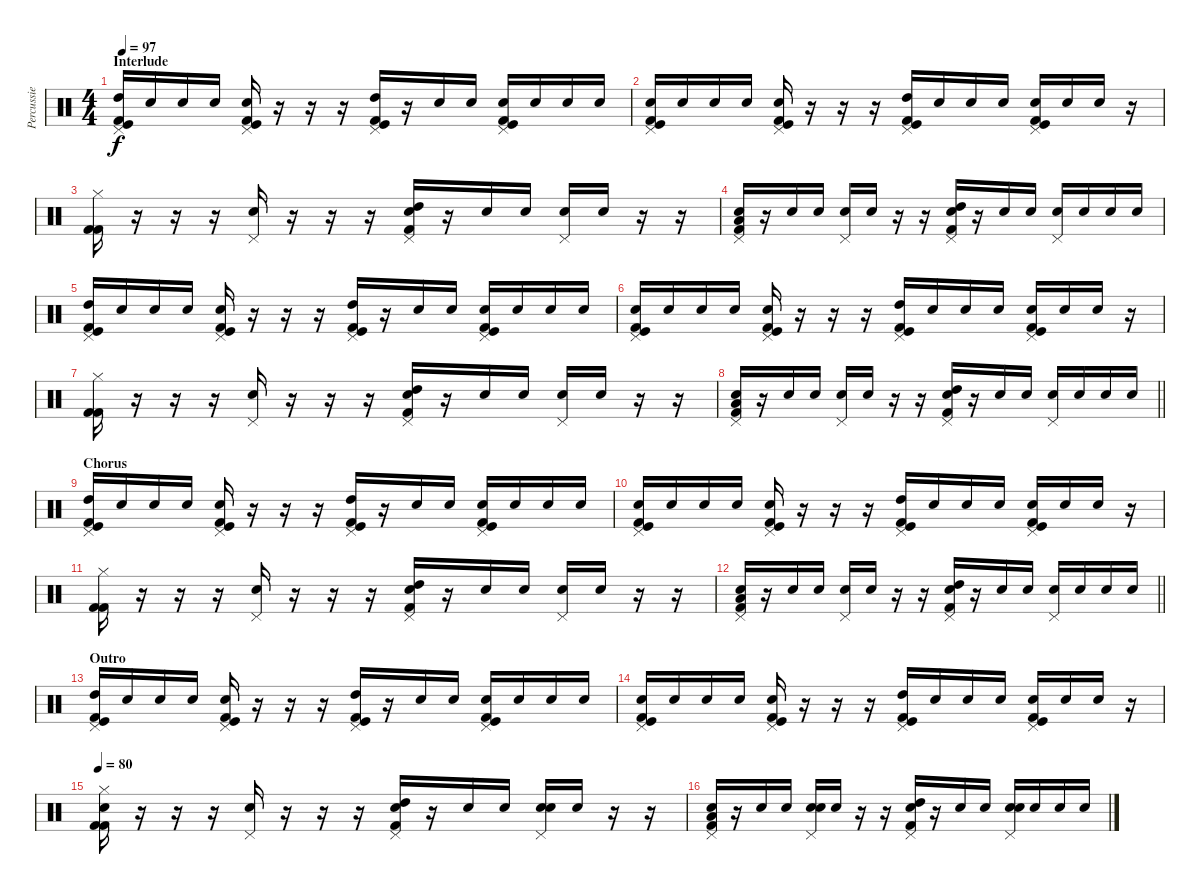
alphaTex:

\track ("Percussie" "Percussie") {instrument percussion}
\staff {score}
\articulation defaults
\ts (4 4)
\section ("" "Interlude")
\tempo 97
\clef neutral
\ks c
("Pedal Hi-Hat (hit)" "High Tom (hit)" "Kick (hit)" "Kick (hit) 2").16{dy f} "Hand Clap (hit)".16 "Hand Clap (hit)".16 "Hand Clap (hit)".16 ("Pedal Hi-Hat (hit)" "Electric Snare (hit)" "Kick (hit)" "Kick (hit) 2").16 r.16 r.16 r.16 ("Pedal Hi-Hat (hit)" "High Tom (hit)" "Kick (hit)" "Kick (hit) 2").16 r.16 "Hand Clap (hit)".16 "Hand Clap (hit)".16 ("Pedal Hi-Hat (hit)" "Electric Snare (hit)" "Kick (hit)" "Kick (hit) 2").16 "Hand Clap (hit)".16 "Hand Clap (hit)".16 "Hand Clap (hit)".16 |
("Pedal Hi-Hat (hit)" "Electric Snare (hit)" "Kick (hit)" "Kick (hit) 2").16 "Hand Clap (hit)".16 "Hand Clap (hit)".16 "Hand Clap (hit)".16 ("Pedal Hi-Hat (hit)" "Electric Snare (hit)" "Kick (hit)" "Kick (hit) 2").16 r.16 r.16 r.16 ("Pedal Hi-Hat (hit)" "High Tom (hit)" "Kick (hit)" "Kick (hit) 2").16 "Hand Clap (hit)".16 "Hand Clap (hit)".16 "Hand Clap (hit)".16 ("Pedal Hi-Hat (hit)" "Electric Snare (hit)" "Kick (hit)" "Kick (hit) 2").16 "Hand Clap (hit)".16 "Electric Snare (hit)".16 r.16 |
("Hi-Hat (closed)" "Kick (hit) 2" "Kick (hit) 2").16 r.16 r.16 r.16 ("Pedal Hi-Hat (hit)" "Hand Clap (hit)").16 r.16 r.16 r.16 ("Pedal Hi-Hat (hit)" "Electric Snare (hit)" "High Tom (hit)" "Kick (hit) 2").16 r.16 "Hand Clap (hit)".16 "Hand Clap (hit)".16 ("Pedal Hi-Hat (hit)" "Hand Clap (hit)").16 "Hand Clap (hit)".16 r.16 r.16 |
("Pedal Hi-Hat (hit)" "Electric Snare (hit)" "Low Tom (hit)" "Kick (hit) 2").16 r.16 "Hand Clap (hit)".16 "Hand Clap (hit)".16 ("Pedal Hi-Hat (hit)" "Hand Clap (hit)").16 "Hand Clap (hit)".16 r.16 r.16 ("Pedal Hi-Hat (hit)" "Electric Snare (hit)" "High Tom (hit)" "Kick (hit) 2").16 r.16 "Hand Clap (hit)".16 "Hand Clap (hit)".16 ("Pedal Hi-Hat (hit)" "Hand Clap (hit)").16 "Hand Clap (hit)".16 "Hand Clap (hit)".16 "Hand Clap (hit)".16 |
("Pedal Hi-Hat (hit)" "High Tom (hit)" "Kick (hit)" "Kick (hit) 2").16 "Hand Clap (hit)".16 "Hand Clap (hit)".16 "Hand Clap (hit)".16 ("Pedal Hi-Hat (hit)" "Electric Snare (hit)" "Kick (hit)" "Kick (hit) 2").16 r.16 r.16 r.16 ("Pedal Hi-Hat (hit)" "High Tom (hit)" "Kick (hit)" "Kick (hit) 2").16 r.16 "Hand Clap (hit)".16 "Hand Clap (hit)".16 ("Pedal Hi-Hat (hit)" "Electric Snare (hit)" "Kick (hit)" "Kick (hit) 2").16 "Hand Clap (hit)".16 "Hand Clap (hit)".16 "Hand Clap (hit)".16 |
("Pedal Hi-Hat (hit)" "Electric Snare (hit)" "Kick (hit)" "Kick (hit) 2").16 "Hand Clap (hit)".16 "Hand Clap (hit)".16 "Hand Clap (hit)".16 ("Pedal Hi-Hat (hit)" "Electric Snare (hit)" "Kick (hit)" "Kick (hit) 2").16 r.16 r.16 r.16 ("Pedal Hi-Hat (hit)" "High Tom (hit)" "Kick (hit)" "Kick (hit) 2").16 "Hand Clap (hit)".16 "Hand Clap (hit)".16 "Hand Clap (hit)".16 ("Pedal Hi-Hat (hit)" "Electric Snare (hit)" "Kick (hit)" "Kick (hit) 2").16 "Hand Clap (hit)".16 "Electric Snare (hit)".16 r.16 |
("Hi-Hat (closed)" "Kick (hit) 2" "Kick (hit) 2").16 r.16 r.16 r.16 ("Pedal Hi-Hat (hit)" "Hand Clap (hit)").16 r.16 r.16 r.16 ("Pedal Hi-Hat (hit)" "Electric Snare (hit)" "High Tom (hit)" "Kick (hit) 2").16 r.16 "Hand Clap (hit)".16 "Hand Clap (hit)".16 ("Pedal Hi-Hat (hit)" "Hand Clap (hit)").16 "Hand Clap (hit)".16 r.16 r.16 |
\barLineRight lightlight
("Pedal Hi-Hat (hit)" "Electric Snare (hit)" "Low Tom (hit)" "Kick (hit) 2").16 r.16 "Hand Clap (hit)".16 "Hand Clap (hit)".16 ("Pedal Hi-Hat (hit)" "Hand Clap (hit)").16 "Hand Clap (hit)".16 r.16 r.16 ("Pedal Hi-Hat (hit)" "Electric Snare (hit)" "High Tom (hit)" "Kick (hit) 2").16 r.16 "Hand Clap (hit)".16 "Hand Clap (hit)".16 ("Pedal Hi-Hat (hit)" "Hand Clap (hit)").16 "Hand Clap (hit)".16 "Hand Clap (hit)".16 "Hand Clap (hit)".16 |
\section ("" "Chorus")
("Pedal Hi-Hat (hit)" "High Tom (hit)" "Kick (hit)" "Kick (hit) 2").16 "Hand Clap (hit)".16 "Hand Clap (hit)".16 "Hand Clap (hit)".16 ("Pedal Hi-Hat (hit)" "Electric Snare (hit)" "Kick (hit)" "Kick (hit) 2").16 r.16 r.16 r.16 ("Pedal Hi-Hat (hit)" "High Tom (hit)" "Kick (hit)" "Kick (hit) 2").16 r.16 "Hand Clap (hit)".16 "Hand Clap (hit)".16 ("Pedal Hi-Hat (hit)" "Electric Snare (hit)" "Kick (hit)" "Kick (hit) 2").16 "Hand Clap (hit)".16 "Hand Clap (hit)".16 "Hand Clap (hit)".16 |
("Pedal Hi-Hat (hit)" "Electric Snare (hit)" "Kick (hit)" "Kick (hit) 2").16 "Hand Clap (hit)".16 "Hand Clap (hit)".16 "Hand Clap (hit)".16 ("Pedal Hi-Hat (hit)" "Electric Snare (hit)" "Kick (hit)" "Kick (hit) 2").16 r.16 r.16 r.16 ("Pedal Hi-Hat (hit)" "High Tom (hit)" "Kick (hit)" "Kick (hit) 2").16 "Hand Clap (hit)".16 "Hand Clap (hit)".16 "Hand Clap (hit)".16 ("Pedal Hi-Hat (hit)" "Electric Snare (hit)" "Kick (hit)" "Kick (hit) 2").16 "Hand Clap (hit)".16 "Electric Snare (hit)".16 r.16 |
("Hi-Hat (closed)" "Kick (hit) 2" "Kick (hit) 2").16 r.16 r.16 r.16 ("Pedal Hi-Hat (hit)" "Hand Clap (hit)").16 r.16 r.16 r.16 ("Pedal Hi-Hat (hit)" "Electric Snare (hit)" "High Tom (hit)" "Kick (hit) 2").16 r.16 "Hand Clap (hit)".16 "Hand Clap (hit)".16 ("Pedal Hi-Hat (hit)" "Hand Clap (hit)").16 "Hand Clap (hit)".16 r.16 r.16 |
\barLineRight lightlight
("Pedal Hi-Hat (hit)" "Electric Snare (hit)" "Low Tom (hit)" "Kick (hit) 2").16 r.16 "Hand Clap (hit)".16 "Hand Clap (hit)".16 ("Pedal Hi-Hat (hit)" "Hand Clap (hit)").16 "Hand Clap (hit)".16 r.16 r.16 ("Pedal Hi-Hat (hit)" "Electric Snare (hit)" "High Tom (hit)" "Kick (hit) 2").16 r.16 "Hand Clap (hit)".16 "Hand Clap (hit)".16 ("Pedal Hi-Hat (hit)" "Hand Clap (hit)").16 "Hand Clap (hit)".16 "Hand Clap (hit)".16 "Hand Clap (hit)".16 |
\section ("" "Outro")
("Pedal Hi-Hat (hit)" "High Tom (hit)" "Kick (hit)" "Kick (hit) 2").16 "Hand Clap (hit)".16 "Hand Clap (hit)".16 "Hand Clap (hit)".16 ("Pedal Hi-Hat (hit)" "Electric Snare (hit)" "Kick (hit)" "Kick (hit) 2").16 r.16 r.16 r.16 ("Pedal Hi-Hat (hit)" "High Tom (hit)" "Kick (hit)" "Kick (hit) 2").16 r.16 "Hand Clap (hit)".16 "Hand Clap (hit)".16 ("Pedal Hi-Hat (hit)" "Electric Snare (hit)" "Kick (hit)" "Kick (hit) 2").16 "Hand Clap (hit)".16 "Hand Clap (hit)".16 "Hand Clap (hit)".16 |
("Pedal Hi-Hat (hit)" "Electric Snare (hit)" "Kick (hit)" "Kick (hit) 2").16 "Hand Clap (hit)".16 "Hand Clap (hit)".16 "Hand Clap (hit)".16 ("Pedal Hi-Hat (hit)" "Electric Snare (hit)" "Kick (hit)" "Kick (hit) 2").16 r.16 r.16 r.16 ("Pedal Hi-Hat (hit)" "High Tom (hit)" "Kick (hit)" "Kick (hit) 2").16 "Hand Clap (hit)".16 "Hand Clap (hit)".16 "Hand Clap (hit)".16 ("Pedal Hi-Hat (hit)" "Electric Snare (hit)" "Kick (hit)" "Kick (hit) 2").16 "Hand Clap (hit)".16 "Electric Snare (hit)".16 r.16 |
\tempo 80
("Hi-Hat (closed)" "Electric Snare (hit)" "Kick (hit) 2" "Kick (hit) 2").16 r.16 r.16 r.16 ("Pedal Hi-Hat (hit)" "Electric Snare (hit)").16 r.16 r.16 r.16 ("Pedal Hi-Hat (hit)" "Electric Snare (hit)" "High Tom (hit)" "Kick (hit) 2").16 r.16 "Hand Clap (hit)".16 "Hand Clap (hit)".16 ("Pedal Hi-Hat (hit)" "Hand Clap (hit)" "Electric Snare (hit)").16 "Hand Clap (hit)".16 r.16 r.16 |
("Pedal Hi-Hat (hit)" "Electric Snare (hit)" "Low Tom (hit)" "Kick (hit) 2").16 r.16 "Hand Clap (hit)".16 "Hand Clap (hit)".16 ("Pedal Hi-Hat (hit)" "Hand Clap (hit)" "Electric Snare (hit)").16 "Hand Clap (hit)".16 r.16 r.16 ("Pedal Hi-Hat (hit)" "Electric Snare (hit)" "High Tom (hit)" "Kick (hit) 2").16 r.16 "Hand Clap (hit)".16 "Hand Clap (hit)".16 ("Pedal Hi-Hat (hit)" "Hand Clap (hit)" "Electric Snare (hit)").16 "Hand Clap (hit)".16 "Hand Clap (hit)".16 "Hand Clap (hit)".16
